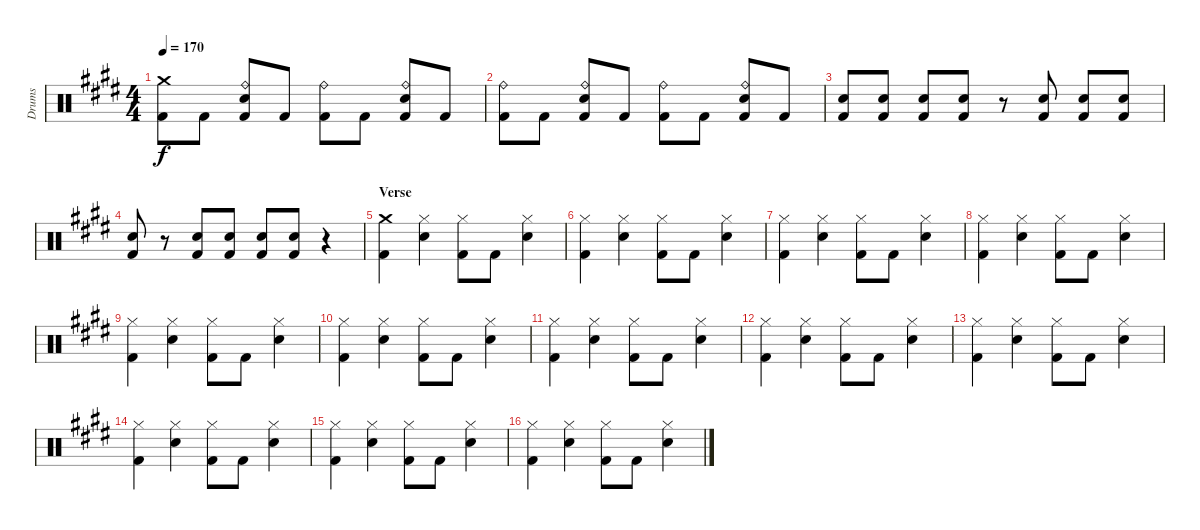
\track ("Drums" "Drums") {instrument percussion}
\staff {score}
\articulation defaults
\ts (4 4)
\tempo 170
\clef neutral
\ks c#minor
("Crash medium (hit)" "Kick (hit) 2").8{dy f} "Kick (hit) 2".8 ("Ride (bell)" "Electric Snare (hit)" "Kick (hit) 2").8 "Kick (hit) 2".8 ("Ride (bell)" "Kick (hit) 2").8 "Kick (hit) 2".8 ("Ride (bell)" "Electric Snare (hit)" "Kick (hit) 2").8 "Kick (hit) 2".8 |
("Ride (bell)" "Kick (hit) 2").8 "Kick (hit) 2".8 ("Ride (bell)" "Electric Snare (hit)" "Kick (hit) 2").8 "Kick (hit) 2".8 ("Ride (bell)" "Kick (hit) 2").8 "Kick (hit) 2".8 ("Ride (bell)" "Electric Snare (hit)" "Kick (hit) 2").8 "Kick (hit) 2".8 |
("Electric Snare (hit)" "Kick (hit) 2").8 ("Electric Snare (hit)" "Kick (hit) 2").8 ("Electric Snare (hit)" "Kick (hit) 2").8 ("Electric Snare (hit)" "Kick (hit) 2").8 r.8 ("Electric Snare (hit)" "Kick (hit) 2").8 ("Electric Snare (hit)" "Kick (hit) 2").8 ("Electric Snare (hit)" "Kick (hit) 2").8 |
("Electric Snare (hit)" "Kick (hit) 2").8 r.8 ("Electric Snare (hit)" "Kick (hit) 2").8 ("Electric Snare (hit)" "Kick (hit) 2").8 ("Electric Snare (hit)" "Kick (hit) 2").8 ("Electric Snare (hit)" "Kick (hit) 2").8 r.4 |
\section ("" "Verse")
("Crash medium (hit)" "Kick (hit) 2").4 ("Hi-Hat (closed)" "Electric Snare (hit)").4 ("Hi-Hat (closed)" "Kick (hit) 2").8 "Kick (hit) 2".8 ("Hi-Hat (closed)" "Electric Snare (hit)").4 |
("Hi-Hat (closed)" "Kick (hit) 2").4 ("Hi-Hat (closed)" "Electric Snare (hit)").4 ("Hi-Hat (closed)" "Kick (hit) 2").8 "Kick (hit) 2".8 ("Hi-Hat (closed)" "Electric Snare (hit)").4 |
("Hi-Hat (closed)" "Kick (hit) 2").4 ("Hi-Hat (closed)" "Electric Snare (hit)").4 ("Hi-Hat (closed)" "Kick (hit) 2").8 "Kick (hit) 2".8 ("Hi-Hat (closed)" "Electric Snare (hit)").4 |
("Hi-Hat (closed)" "Kick (hit) 2").4 ("Hi-Hat (closed)" "Electric Snare (hit)").4 ("Hi-Hat (closed)" "Kick (hit) 2").8 "Kick (hit) 2".8 ("Hi-Hat (closed)" "Electric Snare (hit)").4 |
("Hi-Hat (closed)" "Kick (hit) 2").4 ("Hi-Hat (closed)" "Electric Snare (hit)").4 ("Hi-Hat (closed)" "Kick (hit) 2").8 "Kick (hit) 2".8 ("Hi-Hat (closed)" "Electric Snare (hit)").4 |
("Hi-Hat (closed)" "Kick (hit) 2").4 ("Hi-Hat (closed)" "Electric Snare (hit)").4 ("Hi-Hat (closed)" "Kick (hit) 2").8 "Kick (hit) 2".8 ("Hi-Hat (closed)" "Electric Snare (hit)").4 |
("Hi-Hat (closed)" "Kick (hit) 2").4 ("Hi-Hat (closed)" "Electric Snare (hit)").4 ("Hi-Hat (closed)" "Kick (hit) 2").8 "Kick (hit) 2".8 ("Hi-Hat (closed)" "Electric Snare (hit)").4 |
("Hi-Hat (closed)" "Kick (hit) 2").4 ("Hi-Hat (closed)" "Electric Snare (hit)").4 ("Hi-Hat (closed)" "Kick (hit) 2").8 "Kick (hit) 2".8 ("Hi-Hat (closed)" "Electric Snare (hit)").4 |
("Hi-Hat (closed)" "Kick (hit) 2").4 ("Hi-Hat (closed)" "Electric Snare (hit)").4 ("Hi-Hat (closed)" "Kick (hit) 2").8 "Kick (hit) 2".8 ("Hi-Hat (closed)" "Electric Snare (hit)").4 |
("Hi-Hat (closed)" "Kick (hit) 2").4 ("Hi-Hat (closed)" "Electric Snare (hit)").4 ("Hi-Hat (closed)" "Kick (hit) 2").8 "Kick (hit) 2".8 ("Hi-Hat (closed)" "Electric Snare (hit)").4 |
("Hi-Hat (closed)" "Kick (hit) 2").4 ("Hi-Hat (closed)" "Electric Snare (hit)").4 ("Hi-Hat (closed)" "Kick (hit) 2").8 "Kick (hit) 2".8 ("Hi-Hat (closed)" "Electric Snare (hit)").4 |
("Hi-Hat (closed)" "Kick (hit) 2").4 ("Hi-Hat (closed)" "Electric Snare (hit)").4 ("Hi-Hat (closed)" "Kick (hit) 2").8 "Kick (hit) 2".8 ("Hi-Hat (closed)" "Electric Snare (hit)").4
